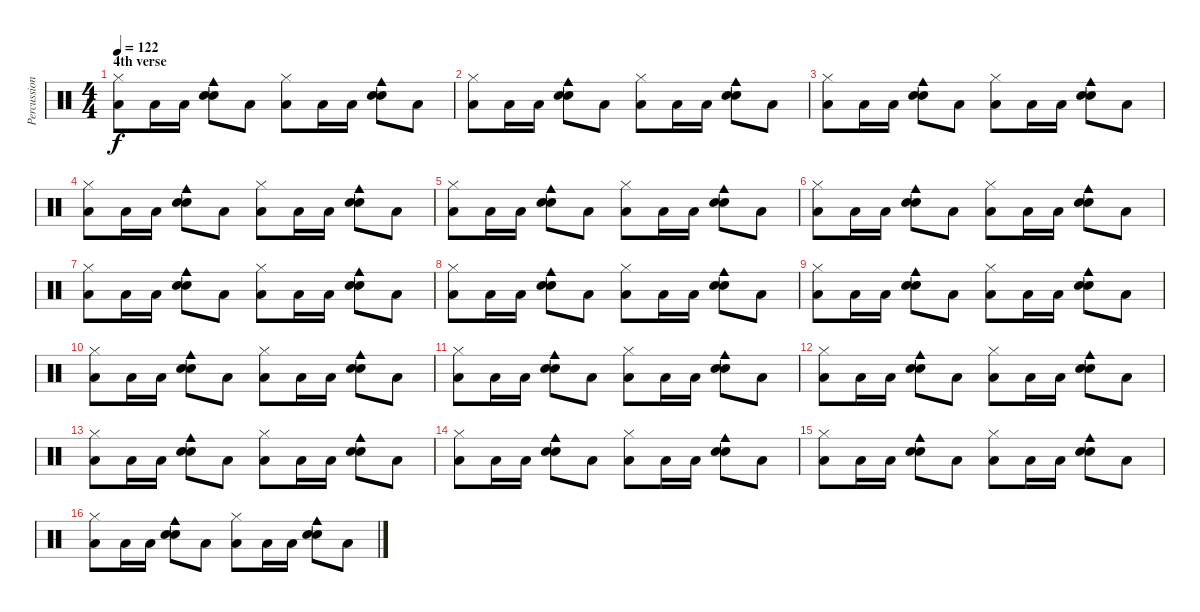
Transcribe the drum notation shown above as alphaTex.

\track ("Percussion" "Percussion") {instrument percussion}
\staff {score}
\articulation defaults
\ts (4 4)
\section ("" "4th verse")
\tempo 122
\clef neutral
\ks c
("Hi-Hat (closed)" "Low Tom (hit)").8{dy f} "Low Tom (hit)".16 "Low Tom (hit)".16 ("Snare (hit) 2" "Electric Snare (hit)" "Cowbell medium (hit)").8 "Low Tom (hit)".8 ("Hi-Hat (closed)" "Low Tom (hit)").8 "Low Tom (hit)".16 "Low Tom (hit)".16 ("Snare (hit) 2" "Electric Snare (hit)" "Cowbell medium (hit)").8 "Low Tom (hit)".8 |
("Hi-Hat (closed)" "Low Tom (hit)").8 "Low Tom (hit)".16 "Low Tom (hit)".16 ("Snare (hit) 2" "Electric Snare (hit)" "Cowbell medium (hit)").8 "Low Tom (hit)".8 ("Hi-Hat (closed)" "Low Tom (hit)").8 "Low Tom (hit)".16 "Low Tom (hit)".16 ("Snare (hit) 2" "Electric Snare (hit)" "Cowbell medium (hit)").8 "Low Tom (hit)".8 |
("Hi-Hat (closed)" "Low Tom (hit)").8 "Low Tom (hit)".16 "Low Tom (hit)".16 ("Snare (hit) 2" "Electric Snare (hit)" "Cowbell medium (hit)").8 "Low Tom (hit)".8 ("Hi-Hat (closed)" "Low Tom (hit)").8 "Low Tom (hit)".16 "Low Tom (hit)".16 ("Snare (hit) 2" "Electric Snare (hit)" "Cowbell medium (hit)").8 "Low Tom (hit)".8 |
("Hi-Hat (closed)" "Low Tom (hit)").8 "Low Tom (hit)".16 "Low Tom (hit)".16 ("Snare (hit) 2" "Electric Snare (hit)" "Cowbell medium (hit)").8 "Low Tom (hit)".8 ("Hi-Hat (closed)" "Low Tom (hit)").8 "Low Tom (hit)".16 "Low Tom (hit)".16 ("Snare (hit) 2" "Electric Snare (hit)" "Cowbell medium (hit)").8 "Low Tom (hit)".8 |
("Hi-Hat (closed)" "Low Tom (hit)").8 "Low Tom (hit)".16 "Low Tom (hit)".16 ("Snare (hit) 2" "Electric Snare (hit)" "Cowbell medium (hit)").8 "Low Tom (hit)".8 ("Hi-Hat (closed)" "Low Tom (hit)").8 "Low Tom (hit)".16 "Low Tom (hit)".16 ("Snare (hit) 2" "Electric Snare (hit)" "Cowbell medium (hit)").8 "Low Tom (hit)".8 |
("Hi-Hat (closed)" "Low Tom (hit)").8 "Low Tom (hit)".16 "Low Tom (hit)".16 ("Snare (hit) 2" "Electric Snare (hit)" "Cowbell medium (hit)").8 "Low Tom (hit)".8 ("Hi-Hat (closed)" "Low Tom (hit)").8 "Low Tom (hit)".16 "Low Tom (hit)".16 ("Snare (hit) 2" "Electric Snare (hit)" "Cowbell medium (hit)").8 "Low Tom (hit)".8 |
("Hi-Hat (closed)" "Low Tom (hit)").8 "Low Tom (hit)".16 "Low Tom (hit)".16 ("Snare (hit) 2" "Electric Snare (hit)" "Cowbell medium (hit)").8 "Low Tom (hit)".8 ("Hi-Hat (closed)" "Low Tom (hit)").8 "Low Tom (hit)".16 "Low Tom (hit)".16 ("Snare (hit) 2" "Electric Snare (hit)" "Cowbell medium (hit)").8 "Low Tom (hit)".8 |
("Hi-Hat (closed)" "Low Tom (hit)").8 "Low Tom (hit)".16 "Low Tom (hit)".16 ("Snare (hit) 2" "Electric Snare (hit)" "Cowbell medium (hit)").8 "Low Tom (hit)".8 ("Hi-Hat (closed)" "Low Tom (hit)").8 "Low Tom (hit)".16 "Low Tom (hit)".16 ("Snare (hit) 2" "Electric Snare (hit)" "Cowbell medium (hit)").8 "Low Tom (hit)".8 |
("Hi-Hat (closed)" "Low Tom (hit)").8 "Low Tom (hit)".16 "Low Tom (hit)".16 ("Snare (hit) 2" "Electric Snare (hit)" "Cowbell medium (hit)").8 "Low Tom (hit)".8 ("Hi-Hat (closed)" "Low Tom (hit)").8 "Low Tom (hit)".16 "Low Tom (hit)".16 ("Snare (hit) 2" "Electric Snare (hit)" "Cowbell medium (hit)").8 "Low Tom (hit)".8 |
("Hi-Hat (closed)" "Low Tom (hit)").8 "Low Tom (hit)".16 "Low Tom (hit)".16 ("Snare (hit) 2" "Electric Snare (hit)" "Cowbell medium (hit)").8 "Low Tom (hit)".8 ("Hi-Hat (closed)" "Low Tom (hit)").8 "Low Tom (hit)".16 "Low Tom (hit)".16 ("Snare (hit) 2" "Electric Snare (hit)" "Cowbell medium (hit)").8 "Low Tom (hit)".8 |
("Hi-Hat (closed)" "Low Tom (hit)").8 "Low Tom (hit)".16 "Low Tom (hit)".16 ("Snare (hit) 2" "Electric Snare (hit)" "Cowbell medium (hit)").8 "Low Tom (hit)".8 ("Hi-Hat (closed)" "Low Tom (hit)").8 "Low Tom (hit)".16 "Low Tom (hit)".16 ("Snare (hit) 2" "Electric Snare (hit)" "Cowbell medium (hit)").8 "Low Tom (hit)".8 |
("Hi-Hat (closed)" "Low Tom (hit)").8 "Low Tom (hit)".16 "Low Tom (hit)".16 ("Snare (hit) 2" "Electric Snare (hit)" "Cowbell medium (hit)").8 "Low Tom (hit)".8 ("Hi-Hat (closed)" "Low Tom (hit)").8 "Low Tom (hit)".16 "Low Tom (hit)".16 ("Snare (hit) 2" "Electric Snare (hit)" "Cowbell medium (hit)").8 "Low Tom (hit)".8 |
("Hi-Hat (closed)" "Low Tom (hit)").8 "Low Tom (hit)".16 "Low Tom (hit)".16 ("Snare (hit) 2" "Electric Snare (hit)" "Cowbell medium (hit)").8 "Low Tom (hit)".8 ("Hi-Hat (closed)" "Low Tom (hit)").8 "Low Tom (hit)".16 "Low Tom (hit)".16 ("Snare (hit) 2" "Electric Snare (hit)" "Cowbell medium (hit)").8 "Low Tom (hit)".8 |
("Hi-Hat (closed)" "Low Tom (hit)").8 "Low Tom (hit)".16 "Low Tom (hit)".16 ("Snare (hit) 2" "Electric Snare (hit)" "Cowbell medium (hit)").8 "Low Tom (hit)".8 ("Hi-Hat (closed)" "Low Tom (hit)").8 "Low Tom (hit)".16 "Low Tom (hit)".16 ("Snare (hit) 2" "Electric Snare (hit)" "Cowbell medium (hit)").8 "Low Tom (hit)".8 |
("Hi-Hat (closed)" "Low Tom (hit)").8 "Low Tom (hit)".16 "Low Tom (hit)".16 ("Snare (hit) 2" "Electric Snare (hit)" "Cowbell medium (hit)").8 "Low Tom (hit)".8 ("Hi-Hat (closed)" "Low Tom (hit)").8 "Low Tom (hit)".16 "Low Tom (hit)".16 ("Snare (hit) 2" "Electric Snare (hit)" "Cowbell medium (hit)").8 "Low Tom (hit)".8 |
("Hi-Hat (closed)" "Low Tom (hit)").8 "Low Tom (hit)".16 "Low Tom (hit)".16 ("Snare (hit) 2" "Electric Snare (hit)" "Cowbell medium (hit)").8 "Low Tom (hit)".8 ("Hi-Hat (closed)" "Low Tom (hit)").8 "Low Tom (hit)".16 "Low Tom (hit)".16 ("Snare (hit) 2" "Electric Snare (hit)" "Cowbell medium (hit)").8 "Low Tom (hit)".8
